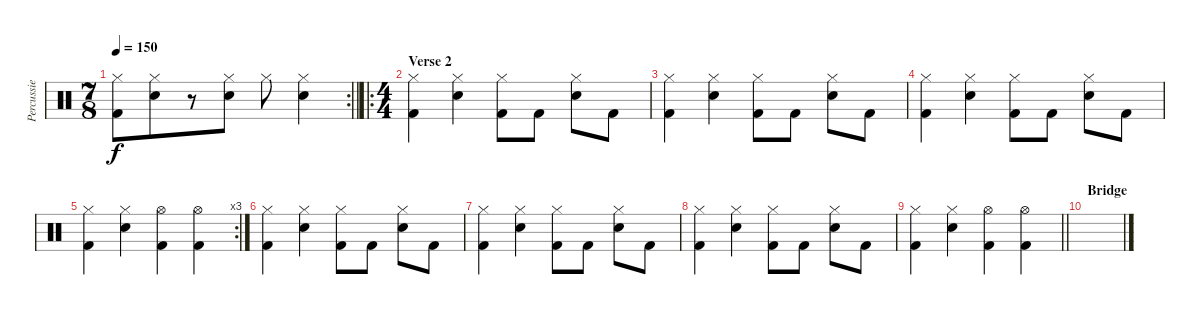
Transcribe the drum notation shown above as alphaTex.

\track ("Percussie" "Percussie") {instrument percussion}
\staff {score}
\articulation defaults
\rc 2
\ts (7 8)
\tempo 150
\clef neutral
\barLineRight lightlight
\ks c
("Kick (hit) 2" "Hi-Hat (closed)").8{dy f} ("Electric Snare (hit)" "Hi-Hat (closed)").8 r.8 ("Electric Snare (hit)" "Hi-Hat (closed)").8 "Hi-Hat (closed)".8 ("Electric Snare (hit)" "Hi-Hat (closed)").4 |
\ro
\ts (4 4)
\section ("" "Verse 2")
("Hi-Hat (closed)" "Kick (hit) 2").4 ("Hi-Hat (closed)" "Snare (hit) 2").4 ("Hi-Hat (closed)" "Kick (hit) 2").8 "Kick (hit) 2".8 ("Hi-Hat (closed)" "Snare (hit) 2").8 "Kick (hit) 2".8 |
("Hi-Hat (closed)" "Kick (hit) 2").4 ("Hi-Hat (closed)" "Snare (hit) 2").4 ("Hi-Hat (closed)" "Kick (hit) 2").8 "Kick (hit) 2".8 ("Hi-Hat (closed)" "Snare (hit) 2").8 "Kick (hit) 2".8 |
("Hi-Hat (closed)" "Kick (hit) 2").4 ("Hi-Hat (closed)" "Snare (hit) 2").4 ("Hi-Hat (closed)" "Kick (hit) 2").8 "Kick (hit) 2".8 ("Hi-Hat (closed)" "Snare (hit) 2").8 "Kick (hit) 2".8 |
\rc 3
("Hi-Hat (closed)" "Kick (hit) 2").4 ("Hi-Hat (closed)" "Snare (hit) 2").4 ("Hi-Hat (open)" "Kick (hit) 2").4 ("Hi-Hat (open)" "Kick (hit) 2").4 |
("Hi-Hat (closed)" "Kick (hit) 2").4 ("Hi-Hat (closed)" "Snare (hit) 2").4 ("Hi-Hat (closed)" "Kick (hit) 2").8 "Kick (hit) 2".8 ("Hi-Hat (closed)" "Snare (hit) 2").8 "Kick (hit) 2".8 |
("Hi-Hat (closed)" "Kick (hit) 2").4 ("Hi-Hat (closed)" "Snare (hit) 2").4 ("Hi-Hat (closed)" "Kick (hit) 2").8 "Kick (hit) 2".8 ("Hi-Hat (closed)" "Snare (hit) 2").8 "Kick (hit) 2".8 |
("Hi-Hat (closed)" "Kick (hit) 2").4 ("Hi-Hat (closed)" "Snare (hit) 2").4 ("Hi-Hat (closed)" "Kick (hit) 2").8 "Kick (hit) 2".8 ("Hi-Hat (closed)" "Snare (hit) 2").8 "Kick (hit) 2".8 |
\barLineRight lightlight
("Hi-Hat (closed)" "Kick (hit) 2").4 ("Hi-Hat (closed)" "Snare (hit) 2").4 ("Hi-Hat (open)" "Kick (hit) 2").4 ("Hi-Hat (open)" "Kick (hit) 2").4 |
\section ("" "Bridge")
